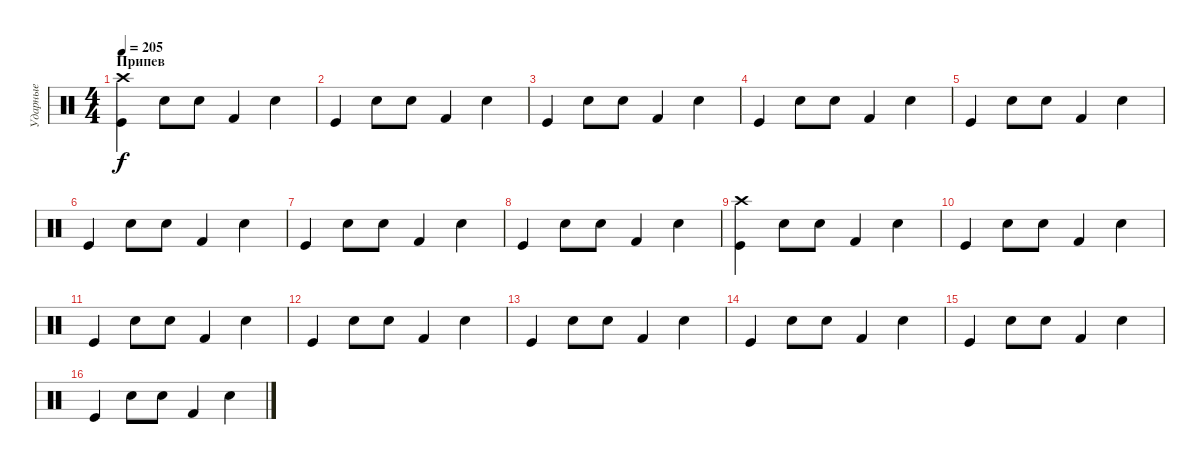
\track ("Ударные" "Ударные") {instrument percussion}
\staff {score}
\articulation defaults
\ts (4 4)
\section ("" "Припев")
\tempo 205
\clef neutral
\ks c
("Kick (hit)" "Crash high (hit)").4{dy f} "Snare (hit) 2".8 "Snare (hit) 2".8 "Kick (hit) 2".4 "Snare (hit) 2".4 |
"Kick (hit)".4 "Snare (hit) 2".8 "Snare (hit) 2".8 "Kick (hit) 2".4 "Snare (hit) 2".4 |
"Kick (hit)".4 "Snare (hit) 2".8 "Snare (hit) 2".8 "Kick (hit) 2".4 "Snare (hit) 2".4 |
"Kick (hit)".4 "Snare (hit) 2".8 "Snare (hit) 2".8 "Kick (hit) 2".4 "Snare (hit) 2".4 |
"Kick (hit)".4 "Snare (hit) 2".8 "Snare (hit) 2".8 "Kick (hit) 2".4 "Snare (hit) 2".4 |
"Kick (hit)".4 "Snare (hit) 2".8 "Snare (hit) 2".8 "Kick (hit) 2".4 "Snare (hit) 2".4 |
"Kick (hit)".4 "Snare (hit) 2".8 "Snare (hit) 2".8 "Kick (hit) 2".4 "Snare (hit) 2".4 |
"Kick (hit)".4 "Snare (hit) 2".8 "Snare (hit) 2".8 "Kick (hit) 2".4 "Snare (hit) 2".4 |
("Kick (hit)" "Crash high (hit)").4 "Snare (hit) 2".8 "Snare (hit) 2".8 "Kick (hit) 2".4 "Snare (hit) 2".4 |
"Kick (hit)".4 "Snare (hit) 2".8 "Snare (hit) 2".8 "Kick (hit) 2".4 "Snare (hit) 2".4 |
"Kick (hit)".4 "Snare (hit) 2".8 "Snare (hit) 2".8 "Kick (hit) 2".4 "Snare (hit) 2".4 |
"Kick (hit)".4 "Snare (hit) 2".8 "Snare (hit) 2".8 "Kick (hit) 2".4 "Snare (hit) 2".4 |
"Kick (hit)".4 "Snare (hit) 2".8 "Snare (hit) 2".8 "Kick (hit) 2".4 "Snare (hit) 2".4 |
"Kick (hit)".4 "Snare (hit) 2".8 "Snare (hit) 2".8 "Kick (hit) 2".4 "Snare (hit) 2".4 |
"Kick (hit)".4 "Snare (hit) 2".8 "Snare (hit) 2".8 "Kick (hit) 2".4 "Snare (hit) 2".4 |
"Kick (hit)".4 "Snare (hit) 2".8 "Snare (hit) 2".8 "Kick (hit) 2".4 "Snare (hit) 2".4
